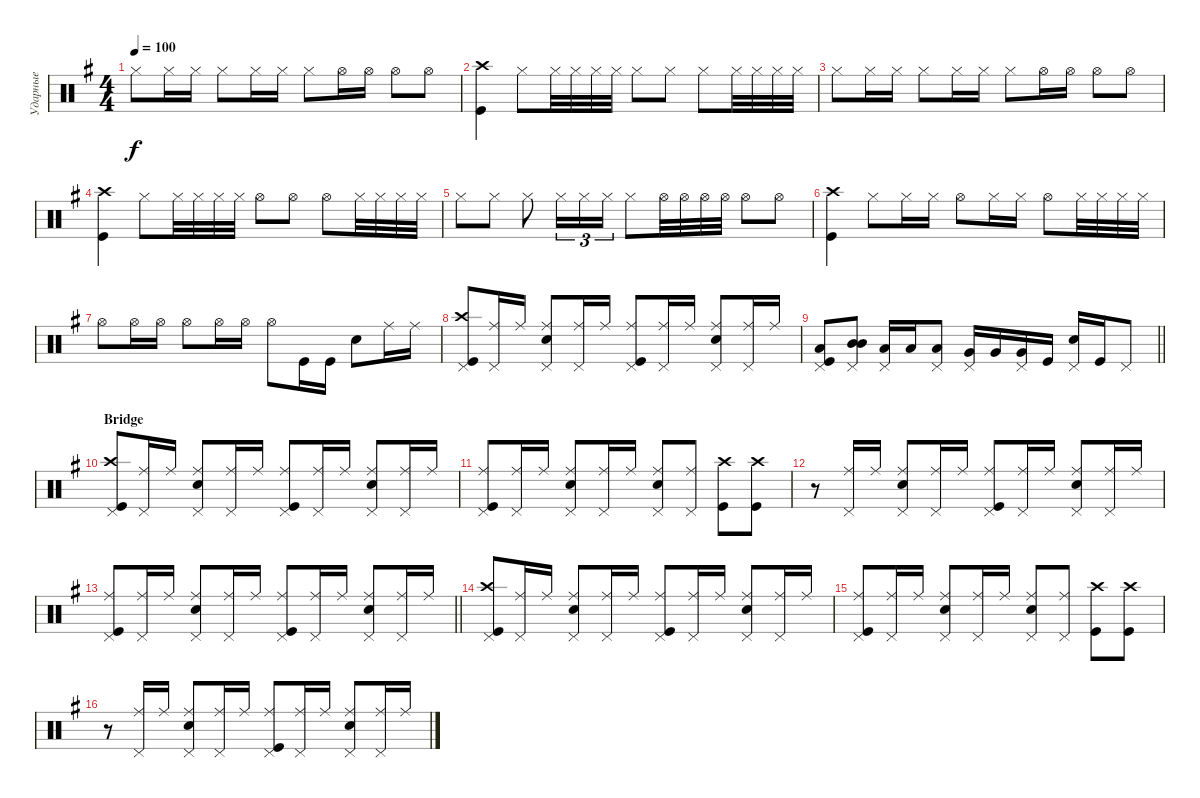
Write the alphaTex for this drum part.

\track ("Ударные" "Ударные") {instrument percussion}
\staff {score}
\articulation defaults
\ts (4 4)
\tempo 100
\clef neutral
\ks eminor "Hi-Hat (closed)".8{dy f} "Hi-Hat (closed)".16 "Hi-Hat (closed)".16 "Hi-Hat (closed)".8 "Hi-Hat (closed)".16 "Hi-Hat (closed)".16 "Hi-Hat (closed)".8 "Hi-Hat (open)".16 "Hi-Hat (open)".16 "Hi-Hat (open)".8 "Hi-Hat (open)".8
|
("Kick (hit)" "Crash high (hit)").4 "Hi-Hat (closed)".8 "Hi-Hat (closed)".32 "Hi-Hat (closed)".32 "Hi-Hat (closed)".32 "Hi-Hat (closed)".32 "Hi-Hat (closed)".8 "Hi-Hat (closed)".8 "Hi-Hat (closed)".8 "Hi-Hat (closed)".32 "Hi-Hat (closed)".32 "Hi-Hat (closed)".32 "Hi-Hat (closed)".32 |
"Hi-Hat (closed)".8 "Hi-Hat (closed)".16 "Hi-Hat (closed)".16 "Hi-Hat (closed)".8 "Hi-Hat (closed)".16 "Hi-Hat (closed)".16 "Hi-Hat (closed)".8 "Hi-Hat (open)".16 "Hi-Hat (open)".16 "Hi-Hat (open)".8 "Hi-Hat (open)".8 |
("Kick (hit)" "Crash high (hit)").4 "Hi-Hat (closed)".8 "Hi-Hat (closed)".32 "Hi-Hat (closed)".32 "Hi-Hat (closed)".32 "Hi-Hat (closed)".32 "Hi-Hat (open)".8 "Hi-Hat (open)".8 "Hi-Hat (open)".8 "Hi-Hat (closed)".32 "Hi-Hat (closed)".32 "Hi-Hat (closed)".32 "Hi-Hat (closed)".32 |
"Hi-Hat (closed)".8 "Hi-Hat (closed)".8 "Hi-Hat (closed)".8 "Hi-Hat (closed)".16{tu (3 2)} "Hi-Hat (closed)".16{tu (3 2)} "Hi-Hat (closed)".16{tu (3 2)} "Hi-Hat (closed)".8 "Hi-Hat (open)".32 "Hi-Hat (open)".32 "Hi-Hat (open)".32 "Hi-Hat (open)".32 "Hi-Hat (open)".8 "Hi-Hat (open)".8 |
("Kick (hit)" "Crash high (hit)").4 "Hi-Hat (closed)".8 "Hi-Hat (closed)".16 "Hi-Hat (closed)".16 "Hi-Hat (open)".8 "Hi-Hat (closed)".16 "Hi-Hat (closed)".16 "Hi-Hat (open)".8 "Hi-Hat (closed)".32 "Hi-Hat (closed)".32 "Hi-Hat (closed)".32 "Hi-Hat (closed)".32 |
"Hi-Hat (open)".8 "Hi-Hat (open)".16 "Hi-Hat (open)".16 "Hi-Hat (open)".8 "Hi-Hat (open)".16 "Hi-Hat (open)".16 "Hi-Hat (open)".8 "Kick (hit)".16 "Kick (hit)".16 "Snare (hit) 2".8{bd 240} "Ride (middle)".16 "Ride (middle)".16 |
("Kick (hit)" "Crash high (hit)" "Pedal Hi-Hat (hit)").8 ("Ride (middle)" "Pedal Hi-Hat (hit)").16 "Ride (middle)".16 ("Ride (middle)" "Snare (hit) 2" "Pedal Hi-Hat (hit)").8 ("Ride (middle)" "Pedal Hi-Hat (hit)").16 "Ride (middle)".16 ("Ride (middle)" "Kick (hit)" "Pedal Hi-Hat (hit)").8 ("Ride (middle)" "Pedal Hi-Hat (hit)").16 "Ride (middle)".16 ("Ride (middle)" "Snare (hit) 2" "Pedal Hi-Hat (hit)").8 ("Ride (middle)" "Pedal Hi-Hat (hit)").16 "Ride (middle)".16 |
\barLineRight lightlight
("Kick (hit)" "Low Floor Tom (hit)" "Pedal Hi-Hat (hit)").8 ("Pedal Hi-Hat (hit)" "Mid Tom (hit)" "Mid Tom (hit)").8{bd 480} ("Pedal Hi-Hat (hit)" "Low Tom (hit)").16 "Low Tom (hit)".16 ("Pedal Hi-Hat (hit)" "Low Tom (hit)").8 ("Pedal Hi-Hat (hit)" "Very Low Tom (hit)").16 "Very Low Tom (hit)".16 ("Very Low Tom (hit)" "Pedal Hi-Hat (hit)").16 "Kick (hit)".16 ("Snare (hit) 2" "Pedal Hi-Hat (hit)").16 "Kick (hit)".16 "Pedal Hi-Hat (hit)".8 |
\section ("" "Bridge")
("Kick (hit)" "Crash high (hit)" "Pedal Hi-Hat (hit)").8 ("Ride (middle)" "Pedal Hi-Hat (hit)").16 "Ride (middle)".16 ("Snare (hit) 2" "Pedal Hi-Hat (hit)" "Ride (middle)").8 ("Ride (middle)" "Pedal Hi-Hat (hit)").16 "Ride (middle)".16 ("Ride (middle)" "Kick (hit)" "Pedal Hi-Hat (hit)").8 ("Ride (middle)" "Pedal Hi-Hat (hit)").16 "Ride (middle)".16 ("Ride (middle)" "Snare (hit) 2" "Pedal Hi-Hat (hit)").8 ("Ride (middle)" "Pedal Hi-Hat (hit)").16 "Ride (middle)".16 |
("Kick (hit)" "Ride (middle)" "Pedal Hi-Hat (hit)").8 ("Ride (middle)" "Pedal Hi-Hat (hit)").16 "Ride (middle)".16 ("Ride (middle)" "Snare (hit) 2" "Pedal Hi-Hat (hit)").8 ("Ride (middle)" "Pedal Hi-Hat (hit)").16 "Ride (middle)".16 ("Snare (hit) 2" "Ride (middle)" "Pedal Hi-Hat (hit)").8 ("Ride (middle)" "Pedal Hi-Hat (hit)").8 ("Kick (hit)" "Crash high (hit)").8 ("Crash high (hit)" "Kick (hit)").8 |
r.8 ("Ride (middle)" "Pedal Hi-Hat (hit)").16 "Ride (middle)".16 ("Snare (hit) 2" "Pedal Hi-Hat (hit)" "Ride (middle)").8 ("Ride (middle)" "Pedal Hi-Hat (hit)").16 "Ride (middle)".16 ("Ride (middle)" "Kick (hit)" "Pedal Hi-Hat (hit)").8 ("Ride (middle)" "Pedal Hi-Hat (hit)").16 "Ride (middle)".16 ("Ride (middle)" "Snare (hit) 2" "Pedal Hi-Hat (hit)").8 ("Ride (middle)" "Pedal Hi-Hat (hit)").16 "Ride (middle)".16 |
\barLineRight lightlight
("Kick (hit)" "Ride (middle)" "Pedal Hi-Hat (hit)").8 ("Ride (middle)" "Pedal Hi-Hat (hit)").16 "Ride (middle)".16 ("Snare (hit) 2" "Pedal Hi-Hat (hit)" "Ride (middle)").8 ("Ride (middle)" "Pedal Hi-Hat (hit)").16 "Ride (middle)".16 ("Ride (middle)" "Kick (hit)" "Pedal Hi-Hat (hit)").8 ("Ride (middle)" "Pedal Hi-Hat (hit)").16 "Ride (middle)".16 ("Ride (middle)" "Snare (hit) 2" "Pedal Hi-Hat (hit)").8 ("Ride (middle)" "Pedal Hi-Hat (hit)").16 "Ride (middle)".16 |
("Kick (hit)" "Crash high (hit)" "Pedal Hi-Hat (hit)").8 ("Ride (middle)" "Pedal Hi-Hat (hit)").16 "Ride (middle)".16 ("Snare (hit) 2" "Pedal Hi-Hat (hit)" "Ride (middle)").8 ("Ride (middle)" "Pedal Hi-Hat (hit)").16 "Ride (middle)".16 ("Ride (middle)" "Kick (hit)" "Pedal Hi-Hat (hit)").8 ("Ride (middle)" "Pedal Hi-Hat (hit)").16 "Ride (middle)".16 ("Ride (middle)" "Snare (hit) 2" "Pedal Hi-Hat (hit)").8 ("Ride (middle)" "Pedal Hi-Hat (hit)").16 "Ride (middle)".16 |
("Kick (hit)" "Ride (middle)" "Pedal Hi-Hat (hit)").8 ("Ride (middle)" "Pedal Hi-Hat (hit)").16 "Ride (middle)".16 ("Ride (middle)" "Snare (hit) 2" "Pedal Hi-Hat (hit)").8 ("Ride (middle)" "Pedal Hi-Hat (hit)").16 "Ride (middle)".16 ("Snare (hit) 2" "Ride (middle)" "Pedal Hi-Hat (hit)").8 ("Ride (middle)" "Pedal Hi-Hat (hit)").8 ("Kick (hit)" "Crash high (hit)").8 ("Crash high (hit)" "Kick (hit)").8 |
r.8 ("Ride (middle)" "Pedal Hi-Hat (hit)").16 "Ride (middle)".16 ("Snare (hit) 2" "Pedal Hi-Hat (hit)" "Ride (middle)").8 ("Ride (middle)" "Pedal Hi-Hat (hit)").16 "Ride (middle)".16 ("Ride (middle)" "Kick (hit)" "Pedal Hi-Hat (hit)").8 ("Ride (middle)" "Pedal Hi-Hat (hit)").16 "Ride (middle)".16 ("Ride (middle)" "Snare (hit) 2" "Pedal Hi-Hat (hit)").8 ("Ride (middle)" "Pedal Hi-Hat (hit)").16 "Ride (middle)".16
